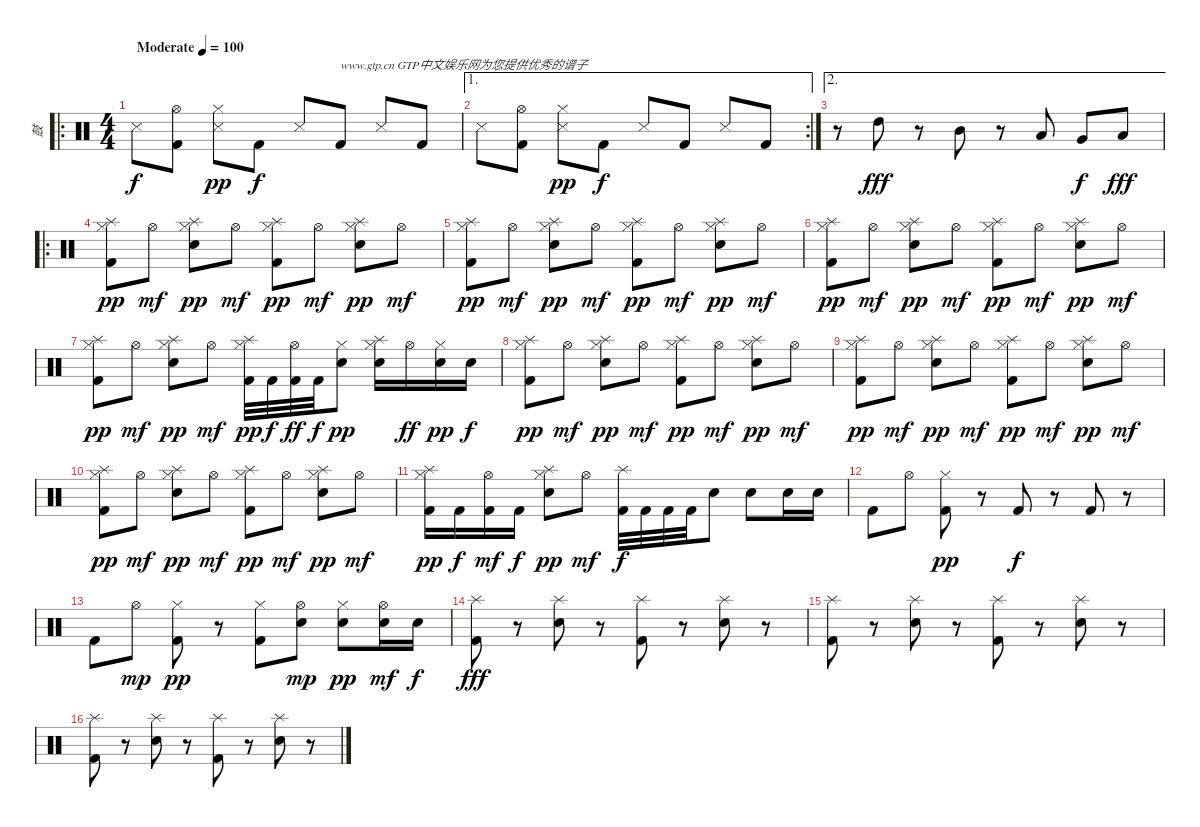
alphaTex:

\track ("鼓" "鼓") {instrument percussion}
\staff {score}
\articulation defaults
\ro
\ts (4 4)
\tempo (100 "Moderate")
\clef neutral
\ks c "Metronome (hit)".8{dy f}
("Kick (hit) 2" "Hi-Hat (open)").8 ("Metronome (hit)" "Hi-Hat (closed)").8{dy pp} "Kick (hit) 2".8{dy f} "Metronome (hit)".8 "Kick (hit) 2".8{txt "www.gtp.cn GTP中文娱乐网为您提供优秀的谱子"} "Metronome (hit)".8 "Kick (hit) 2".8 |
\ae 1
\rc 2 "Metronome (hit)".8
("Kick (hit) 2" "Hi-Hat (open)").8 ("Metronome (hit)" "Hi-Hat (closed)").8{dy pp} "Kick (hit) 2".8{dy f} "Metronome (hit)".8 "Kick (hit) 2".8 "Metronome (hit)".8 "Kick (hit) 2".8 |
\ae 2
r.8 "High Tom (hit)".8{dy fff} r.8 "Mid Tom (hit)".8 r.8 "Low Tom (hit)".8 "Very Low Tom (hit)".8{dy f} "Low Floor Tom (hit)".8{dy fff} |
\ro
("Hi-Hat (closed)" "Splash (hit)" "Kick (hit) 2").8{dy pp} "Hi-Hat (open)".8{dy mf} ("Hi-Hat (closed)" "Splash (hit)" "Snare (hit) 2").8{dy pp} "Hi-Hat (open)".8{dy mf} ("Hi-Hat (closed)" "Splash (hit)" "Kick (hit) 2").8{dy pp} "Hi-Hat (open)".8{dy mf} ("Hi-Hat (closed)" "Splash (hit)" "Snare (hit) 2").8{dy pp} "Hi-Hat (open)".8{dy mf} |
("Hi-Hat (closed)" "Splash (hit)" "Kick (hit) 2").8{dy pp} "Hi-Hat (open)".8{dy mf} ("Hi-Hat (closed)" "Splash (hit)" "Snare (hit) 2").8{dy pp} "Hi-Hat (open)".8{dy mf} ("Hi-Hat (closed)" "Splash (hit)" "Kick (hit) 2").8{dy pp} "Hi-Hat (open)".8{dy mf} ("Hi-Hat (closed)" "Splash (hit)" "Snare (hit) 2").8{dy pp} "Hi-Hat (open)".8{dy mf} |
("Hi-Hat (closed)" "Splash (hit)" "Kick (hit) 2").8{dy pp} "Hi-Hat (open)".8{dy mf} ("Hi-Hat (closed)" "Splash (hit)" "Snare (hit) 2").8{dy pp} "Hi-Hat (open)".8{dy mf} ("Hi-Hat (closed)" "Splash (hit)" "Kick (hit) 2").8{dy pp} "Hi-Hat (open)".8{dy mf} ("Hi-Hat (closed)" "Splash (hit)" "Snare (hit) 2").8{dy pp} "Hi-Hat (open)".8{dy mf} |
("Hi-Hat (closed)" "Splash (hit)" "Kick (hit) 2").8{dy pp} "Hi-Hat (open)".8{dy mf} ("Hi-Hat (closed)" "Splash (hit)" "Snare (hit) 2").8{dy pp} "Hi-Hat (open)".8{dy mf} ("Hi-Hat (closed)" "Splash (hit)" "Kick (hit) 2").32{dy pp} "Kick (hit) 2".32{dy f} ("Hi-Hat (open)" "Kick (hit) 2").32{dy ff} "Kick (hit) 2".32{dy f} ("Hi-Hat (closed)" "Snare (hit) 2").8{dy pp} ("Hi-Hat (closed)" "Splash (hit)" "Snare (hit) 2").16 "Hi-Hat (open)".16{dy ff} ("Hi-Hat (closed)" "Snare (hit) 2").16{dy pp} "Snare (hit) 2".16{dy f} |
("Hi-Hat (closed)" "Splash (hit)" "Kick (hit) 2").8{dy pp} "Hi-Hat (open)".8{dy mf} ("Hi-Hat (closed)" "Splash (hit)" "Snare (hit) 2").8{dy pp} "Hi-Hat (open)".8{dy mf} ("Hi-Hat (closed)" "Splash (hit)" "Kick (hit) 2").8{dy pp} "Hi-Hat (open)".8{dy mf} ("Hi-Hat (closed)" "Splash (hit)" "Snare (hit) 2").8{dy pp} "Hi-Hat (open)".8{dy mf} |
("Hi-Hat (closed)" "Splash (hit)" "Kick (hit) 2").8{dy pp} "Hi-Hat (open)".8{dy mf} ("Hi-Hat (closed)" "Splash (hit)" "Snare (hit) 2").8{dy pp} "Hi-Hat (open)".8{dy mf} ("Hi-Hat (closed)" "Splash (hit)" "Kick (hit) 2").8{dy pp} "Hi-Hat (open)".8{dy mf} ("Hi-Hat (closed)" "Splash (hit)" "Snare (hit) 2").8{dy pp} "Hi-Hat (open)".8{dy mf} |
("Hi-Hat (closed)" "Splash (hit)" "Kick (hit) 2").8{dy pp} "Hi-Hat (open)".8{dy mf} ("Hi-Hat (closed)" "Splash (hit)" "Snare (hit) 2").8{dy pp} "Hi-Hat (open)".8{dy mf} ("Hi-Hat (closed)" "Splash (hit)" "Kick (hit) 2").8{dy pp} "Hi-Hat (open)".8{dy mf} ("Hi-Hat (closed)" "Splash (hit)" "Snare (hit) 2").8{dy pp} "Hi-Hat (open)".8{dy mf} |
("Hi-Hat (closed)" "Splash (hit)" "Kick (hit) 2").16{dy pp} "Kick (hit) 2".16{dy f} ("Hi-Hat (open)" "Kick (hit) 2").16{dy mf} "Kick (hit) 2".16{dy f} ("Hi-Hat (closed)" "Splash (hit)" "Snare (hit) 2").8{dy pp} "Hi-Hat (open)".8{dy mf} ("Splash (hit)" "Kick (hit) 2").32{dy f} "Kick (hit) 2".32 "Kick (hit) 2".32 "Kick (hit) 2".32 "Snare (hit) 2".8 "Snare (hit) 2".8 "Snare (hit) 2".16 "Snare (hit) 2".16 |
"Kick (hit) 2".8 "Hi-Hat (open)".8 ("Kick (hit) 2" "Hi-Hat (closed)").8{dy pp} r.8 "Kick (hit) 2".8{dy f} r.8 "Kick (hit) 2".8 r.8 |
"Kick (hit) 2".8 "Hi-Hat (open)".8{dy mp} ("Kick (hit) 2" "Hi-Hat (closed)").8{dy pp} r.8 ("Kick (hit) 2" "Hi-Hat (closed)").8 ("Snare (hit) 2" "Hi-Hat (open)").8{dy mp} ("Snare (hit) 2" "Hi-Hat (closed)").8{dy pp} ("Snare (hit) 2" "Hi-Hat (open)").16{dy mf} "Snare (hit) 2".16{dy f} |
("Splash (hit)" "Kick (hit) 2").8{dy fff} r.8 ("Splash (hit)" "Snare (hit) 2").8 r.8 ("Splash (hit)" "Kick (hit) 2").8 r.8 ("Splash (hit)" "Snare (hit) 2").8 r.8 |
("Splash (hit)" "Kick (hit) 2").8 r.8 ("Splash (hit)" "Snare (hit) 2").8 r.8 ("Splash (hit)" "Kick (hit) 2").8 r.8 ("Splash (hit)" "Snare (hit) 2").8 r.8 |
("Splash (hit)" "Kick (hit) 2").8 r.8 ("Splash (hit)" "Snare (hit) 2").8 r.8 ("Splash (hit)" "Kick (hit) 2").8 r.8 ("Splash (hit)" "Snare (hit) 2").8 r.8
